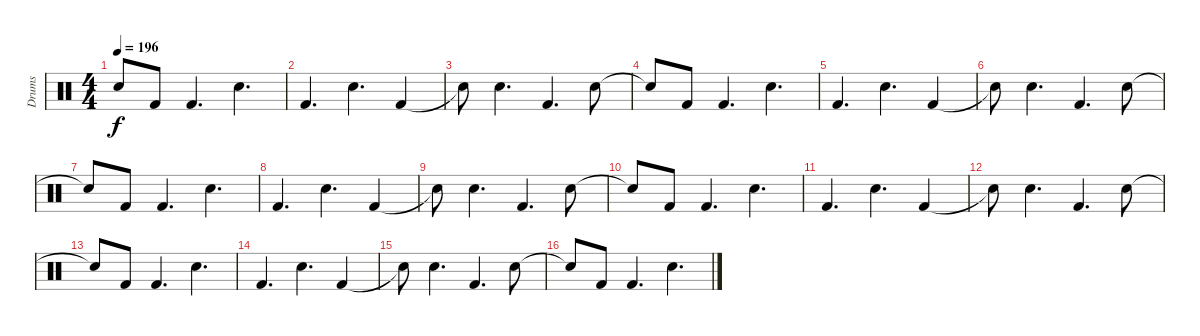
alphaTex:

\track ("Drums" "Drums") {instrument percussion}
\staff {score}
\articulation defaults
\ts (4 4)
\tempo 196
\clef neutral
\ks c "Snare (hit)"{t}.8{dy f} "Kick (hit) 2".8 "Kick (hit) 2".4{d} "Electric Snare (hit)".4{d}
|
"Kick (hit) 2".4{d} "Electric Snare (hit)".4{d} "Kick (hit) 2".4 |
"Snare (hit)"{t}.8 "Electric Snare (hit)".4{d} "Kick (hit) 2".4{d} "Electric Snare (hit)".8 |
"Snare (hit)"{t}.8 "Kick (hit) 2".8 "Kick (hit) 2".4{d} "Electric Snare (hit)".4{d} |
"Kick (hit) 2".4{d} "Electric Snare (hit)".4{d} "Kick (hit) 2".4 |
"Snare (hit)"{t}.8 "Electric Snare (hit)".4{d} "Kick (hit) 2".4{d} "Electric Snare (hit)".8 |
"Snare (hit)"{t}.8 "Kick (hit) 2".8 "Kick (hit) 2".4{d} "Electric Snare (hit)".4{d} |
"Kick (hit) 2".4{d} "Electric Snare (hit)".4{d} "Kick (hit) 2".4 |
"Snare (hit)"{t}.8 "Electric Snare (hit)".4{d} "Kick (hit) 2".4{d} "Electric Snare (hit)".8 |
"Snare (hit)"{t}.8 "Kick (hit) 2".8 "Kick (hit) 2".4{d} "Electric Snare (hit)".4{d} |
"Kick (hit) 2".4{d} "Electric Snare (hit)".4{d} "Kick (hit) 2".4 |
"Snare (hit)"{t}.8 "Electric Snare (hit)".4{d} "Kick (hit) 2".4{d} "Electric Snare (hit)".8 |
"Snare (hit)"{t}.8 "Kick (hit) 2".8 "Kick (hit) 2".4{d} "Electric Snare (hit)".4{d} |
"Kick (hit) 2".4{d} "Electric Snare (hit)".4{d} "Kick (hit) 2".4 |
"Snare (hit)"{t}.8 "Electric Snare (hit)".4{d} "Kick (hit) 2".4{d} "Electric Snare (hit)".8 |
"Snare (hit)"{t}.8 "Kick (hit) 2".8 "Kick (hit) 2".4{d} "Electric Snare (hit)".4{d}
